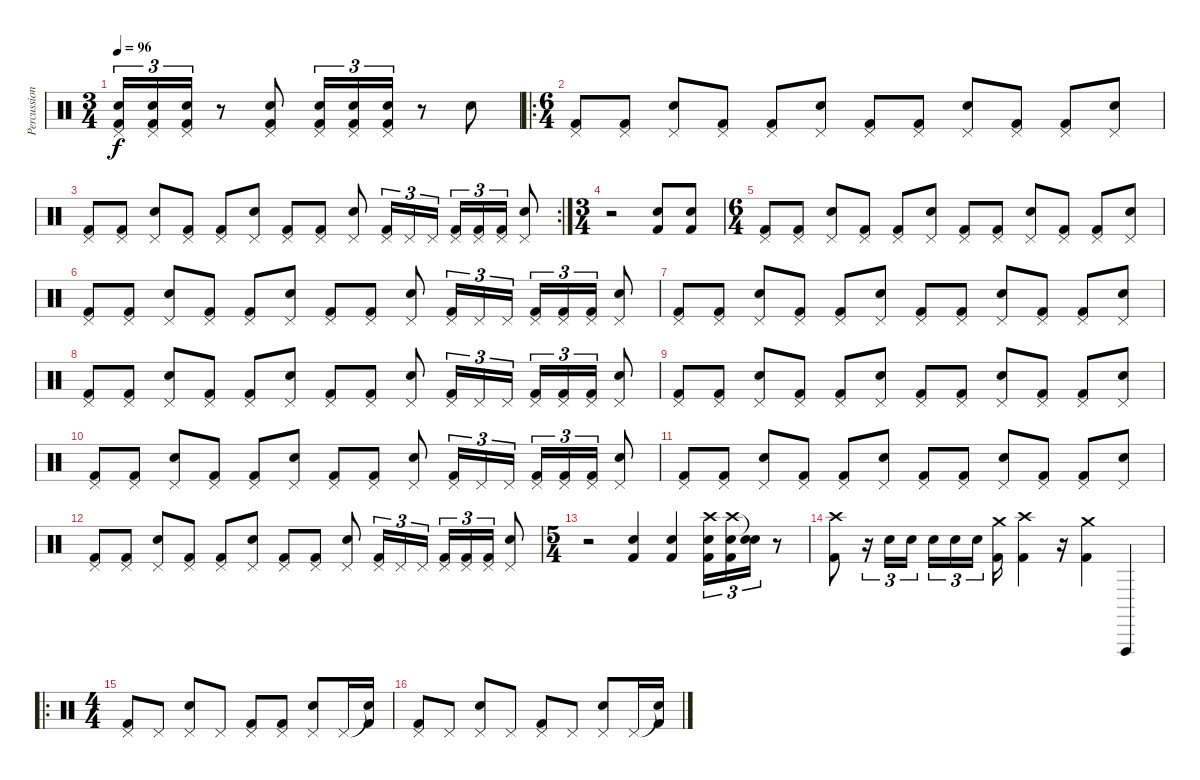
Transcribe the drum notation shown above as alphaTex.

\track ("Percussion" "Percussion") {instrument percussion}
\staff {score}
\articulation defaults
\ts (3 4)
\tempo 96
\clef neutral
\ks c
("Pedal Hi-Hat (hit)" "Snare (hit) 2" "Kick (hit) 2").16{tu (3 2) dy f} ("Pedal Hi-Hat (hit)" "Snare (hit) 2" "Kick (hit) 2").16{tu (3 2)} ("Pedal Hi-Hat (hit)" "Snare (hit) 2" "Kick (hit) 2").16{tu (3 2)} r.8 ("Pedal Hi-Hat (hit)" "Snare (hit) 2" "Kick (hit) 2").8 ("Pedal Hi-Hat (hit)" "Snare (hit) 2" "Kick (hit) 2").16{tu (3 2)} ("Pedal Hi-Hat (hit)" "Snare (hit) 2" "Kick (hit) 2").16{tu (3 2)} ("Pedal Hi-Hat (hit)" "Snare (hit) 2" "Kick (hit) 2").16{tu (3 2)} r.8 "Snare (hit) 2".8 |
\ro
\ts (6 4)
("Pedal Hi-Hat (hit)" "Kick (hit) 2").8 ("Pedal Hi-Hat (hit)" "Kick (hit) 2").8 ("Pedal Hi-Hat (hit)" "Snare (hit) 2").8 ("Pedal Hi-Hat (hit)" "Kick (hit) 2").8 ("Pedal Hi-Hat (hit)" "Kick (hit) 2").8 ("Pedal Hi-Hat (hit)" "Snare (hit) 2").8 ("Pedal Hi-Hat (hit)" "Kick (hit) 2").8 ("Pedal Hi-Hat (hit)" "Kick (hit) 2").8 ("Pedal Hi-Hat (hit)" "Snare (hit) 2").8 ("Pedal Hi-Hat (hit)" "Kick (hit) 2").8 ("Pedal Hi-Hat (hit)" "Kick (hit) 2").8 ("Pedal Hi-Hat (hit)" "Snare (hit) 2").8 |
\rc 2
("Pedal Hi-Hat (hit)" "Kick (hit) 2").8 ("Pedal Hi-Hat (hit)" "Kick (hit) 2").8 ("Pedal Hi-Hat (hit)" "Snare (hit) 2").8 ("Pedal Hi-Hat (hit)" "Kick (hit) 2").8 ("Pedal Hi-Hat (hit)" "Kick (hit) 2").8 ("Pedal Hi-Hat (hit)" "Snare (hit) 2").8 ("Pedal Hi-Hat (hit)" "Kick (hit) 2").8 ("Pedal Hi-Hat (hit)" "Kick (hit) 2").8 ("Pedal Hi-Hat (hit)" "Snare (hit) 2").8 ("Pedal Hi-Hat (hit)" "Kick (hit) 2").16{tu (3 2)} "Pedal Hi-Hat (hit)".16{tu (3 2)} "Pedal Hi-Hat (hit)".16{tu (3 2)} ("Pedal Hi-Hat (hit)" "Kick (hit) 2").16{tu (3 2)} ("Pedal Hi-Hat (hit)" "Kick (hit) 2").16{tu (3 2)} ("Pedal Hi-Hat (hit)" "Kick (hit) 2").16{tu (3 2)} ("Pedal Hi-Hat (hit)" "Snare (hit) 2").8 |
\ts (3 4)
r.2 ("Snare (hit) 2" "Kick (hit) 2").8 ("Snare (hit) 2" "Kick (hit) 2").8 |
\ts (6 4)
("Pedal Hi-Hat (hit)" "Kick (hit) 2").8 ("Pedal Hi-Hat (hit)" "Kick (hit) 2").8 ("Pedal Hi-Hat (hit)" "Snare (hit) 2").8 ("Pedal Hi-Hat (hit)" "Kick (hit) 2").8 ("Pedal Hi-Hat (hit)" "Kick (hit) 2").8 ("Pedal Hi-Hat (hit)" "Snare (hit) 2").8 ("Pedal Hi-Hat (hit)" "Kick (hit) 2").8 ("Pedal Hi-Hat (hit)" "Kick (hit) 2").8 ("Pedal Hi-Hat (hit)" "Snare (hit) 2").8 ("Pedal Hi-Hat (hit)" "Kick (hit) 2").8 ("Pedal Hi-Hat (hit)" "Kick (hit) 2").8 ("Pedal Hi-Hat (hit)" "Snare (hit) 2").8 |
("Pedal Hi-Hat (hit)" "Kick (hit) 2").8 ("Pedal Hi-Hat (hit)" "Kick (hit) 2").8 ("Pedal Hi-Hat (hit)" "Snare (hit) 2").8 ("Pedal Hi-Hat (hit)" "Kick (hit) 2").8 ("Pedal Hi-Hat (hit)" "Kick (hit) 2").8 ("Pedal Hi-Hat (hit)" "Snare (hit) 2").8 ("Pedal Hi-Hat (hit)" "Kick (hit) 2").8 ("Pedal Hi-Hat (hit)" "Kick (hit) 2").8 ("Pedal Hi-Hat (hit)" "Snare (hit) 2").8 ("Pedal Hi-Hat (hit)" "Kick (hit) 2").16{tu (3 2)} "Pedal Hi-Hat (hit)".16{tu (3 2)} "Pedal Hi-Hat (hit)".16{tu (3 2)} ("Pedal Hi-Hat (hit)" "Kick (hit) 2").16{tu (3 2)} ("Pedal Hi-Hat (hit)" "Kick (hit) 2").16{tu (3 2)} ("Pedal Hi-Hat (hit)" "Kick (hit) 2").16{tu (3 2)} ("Pedal Hi-Hat (hit)" "Snare (hit) 2").8 |
("Pedal Hi-Hat (hit)" "Kick (hit) 2").8 ("Pedal Hi-Hat (hit)" "Kick (hit) 2").8 ("Pedal Hi-Hat (hit)" "Snare (hit) 2").8 ("Pedal Hi-Hat (hit)" "Kick (hit) 2").8 ("Pedal Hi-Hat (hit)" "Kick (hit) 2").8 ("Pedal Hi-Hat (hit)" "Snare (hit) 2").8 ("Pedal Hi-Hat (hit)" "Kick (hit) 2").8 ("Pedal Hi-Hat (hit)" "Kick (hit) 2").8 ("Pedal Hi-Hat (hit)" "Snare (hit) 2").8 ("Pedal Hi-Hat (hit)" "Kick (hit) 2").8 ("Pedal Hi-Hat (hit)" "Kick (hit) 2").8 ("Pedal Hi-Hat (hit)" "Snare (hit) 2").8 |
("Pedal Hi-Hat (hit)" "Kick (hit) 2").8 ("Pedal Hi-Hat (hit)" "Kick (hit) 2").8 ("Pedal Hi-Hat (hit)" "Snare (hit) 2").8 ("Pedal Hi-Hat (hit)" "Kick (hit) 2").8 ("Pedal Hi-Hat (hit)" "Kick (hit) 2").8 ("Pedal Hi-Hat (hit)" "Snare (hit) 2").8 ("Pedal Hi-Hat (hit)" "Kick (hit) 2").8 ("Pedal Hi-Hat (hit)" "Kick (hit) 2").8 ("Pedal Hi-Hat (hit)" "Snare (hit) 2").8 ("Pedal Hi-Hat (hit)" "Kick (hit) 2").16{tu (3 2)} "Pedal Hi-Hat (hit)".16{tu (3 2)} "Pedal Hi-Hat (hit)".16{tu (3 2)} ("Pedal Hi-Hat (hit)" "Kick (hit) 2").16{tu (3 2)} ("Pedal Hi-Hat (hit)" "Kick (hit) 2").16{tu (3 2)} ("Pedal Hi-Hat (hit)" "Kick (hit) 2").16{tu (3 2)} ("Pedal Hi-Hat (hit)" "Snare (hit) 2").8 |
("Pedal Hi-Hat (hit)" "Kick (hit) 2").8 ("Pedal Hi-Hat (hit)" "Kick (hit) 2").8 ("Pedal Hi-Hat (hit)" "Snare (hit) 2").8 ("Pedal Hi-Hat (hit)" "Kick (hit) 2").8 ("Pedal Hi-Hat (hit)" "Kick (hit) 2").8 ("Pedal Hi-Hat (hit)" "Snare (hit) 2").8 ("Pedal Hi-Hat (hit)" "Kick (hit) 2").8 ("Pedal Hi-Hat (hit)" "Kick (hit) 2").8 ("Pedal Hi-Hat (hit)" "Snare (hit) 2").8 ("Pedal Hi-Hat (hit)" "Kick (hit) 2").8 ("Pedal Hi-Hat (hit)" "Kick (hit) 2").8 ("Pedal Hi-Hat (hit)" "Snare (hit) 2").8 |
("Pedal Hi-Hat (hit)" "Kick (hit) 2").8 ("Pedal Hi-Hat (hit)" "Kick (hit) 2").8 ("Pedal Hi-Hat (hit)" "Snare (hit) 2").8 ("Pedal Hi-Hat (hit)" "Kick (hit) 2").8 ("Pedal Hi-Hat (hit)" "Kick (hit) 2").8 ("Pedal Hi-Hat (hit)" "Snare (hit) 2").8 ("Pedal Hi-Hat (hit)" "Kick (hit) 2").8 ("Pedal Hi-Hat (hit)" "Kick (hit) 2").8 ("Pedal Hi-Hat (hit)" "Snare (hit) 2").8 ("Pedal Hi-Hat (hit)" "Kick (hit) 2").16{tu (3 2)} "Pedal Hi-Hat (hit)".16{tu (3 2)} "Pedal Hi-Hat (hit)".16{tu (3 2)} ("Pedal Hi-Hat (hit)" "Kick (hit) 2").16{tu (3 2)} ("Pedal Hi-Hat (hit)" "Kick (hit) 2").16{tu (3 2)} ("Pedal Hi-Hat (hit)" "Kick (hit) 2").16{tu (3 2)} ("Pedal Hi-Hat (hit)" "Snare (hit) 2").8 |
("Pedal Hi-Hat (hit)" "Kick (hit) 2").8 ("Pedal Hi-Hat (hit)" "Kick (hit) 2").8 ("Pedal Hi-Hat (hit)" "Snare (hit) 2").8 ("Pedal Hi-Hat (hit)" "Kick (hit) 2").8 ("Pedal Hi-Hat (hit)" "Kick (hit) 2").8 ("Pedal Hi-Hat (hit)" "Snare (hit) 2").8 ("Pedal Hi-Hat (hit)" "Kick (hit) 2").8 ("Pedal Hi-Hat (hit)" "Kick (hit) 2").8 ("Pedal Hi-Hat (hit)" "Snare (hit) 2").8 ("Pedal Hi-Hat (hit)" "Kick (hit) 2").8 ("Pedal Hi-Hat (hit)" "Kick (hit) 2").8 ("Pedal Hi-Hat (hit)" "Snare (hit) 2").8 |
("Pedal Hi-Hat (hit)" "Kick (hit) 2").8 ("Pedal Hi-Hat (hit)" "Kick (hit) 2").8 ("Pedal Hi-Hat (hit)" "Snare (hit) 2").8 ("Pedal Hi-Hat (hit)" "Kick (hit) 2").8 ("Pedal Hi-Hat (hit)" "Kick (hit) 2").8 ("Pedal Hi-Hat (hit)" "Snare (hit) 2").8 ("Pedal Hi-Hat (hit)" "Kick (hit) 2").8 ("Pedal Hi-Hat (hit)" "Kick (hit) 2").8 ("Pedal Hi-Hat (hit)" "Snare (hit) 2").8 ("Pedal Hi-Hat (hit)" "Kick (hit) 2").16{tu (3 2)} "Pedal Hi-Hat (hit)".16{tu (3 2)} "Pedal Hi-Hat (hit)".16{tu (3 2)} ("Pedal Hi-Hat (hit)" "Kick (hit) 2").16{tu (3 2)} ("Pedal Hi-Hat (hit)" "Kick (hit) 2").16{tu (3 2)} ("Pedal Hi-Hat (hit)" "Kick (hit) 2").16{tu (3 2)} ("Pedal Hi-Hat (hit)" "Snare (hit) 2").8 |
\ts (5 4)
r.2 ("Snare (hit) 2" "Kick (hit) 2").4 ("Snare (hit) 2" "Kick (hit) 2").4 ("Crash high (hit)" "Snare (hit) 2" "Kick (hit) 2").16{tu (3 2)} ("Crash high (hit)" "Snare (hit) 2" "Kick (hit) 2").16{tu (3 2)} ("Snare (hit)"{t} "Snare (hit)"{t}).16{tu (3 2)} r.8 |
("Crash high (hit)" "Kick (hit) 2").8 r.16{tu (3 2)} "Snare (hit) 2".16{tu (3 2)} "Snare (hit) 2".16{tu (3 2)} "Snare (hit) 2".16{tu (3 2)} "Snare (hit) 2".16{tu (3 2)} "Snare (hit) 2".16{tu (3 2)} ("Crash medium (hit)" "Kick (hit) 2").16 ("Crash high (hit)" "Kick (hit) 2").4 r.16 ("Crash medium (hit)" "Kick (hit) 2").4 "Vibraslap (hit)".4 |
\ro
\ts (4 4)
("Pedal Hi-Hat (hit)" "Kick (hit) 2").8 "Pedal Hi-Hat (hit)".8 ("Pedal Hi-Hat (hit)" "Snare (hit) 2").8 "Pedal Hi-Hat (hit)".8 ("Pedal Hi-Hat (hit)" "Kick (hit) 2").8 ("Pedal Hi-Hat (hit)" "Kick (hit) 2").8 ("Pedal Hi-Hat (hit)" "Snare (hit) 2").8 "Pedal Hi-Hat (hit)".16 ("Snare (hit)"{t} "Kick (hit) 2").16 |
("Pedal Hi-Hat (hit)" "Kick (hit) 2").8 "Pedal Hi-Hat (hit)".8 ("Pedal Hi-Hat (hit)" "Snare (hit) 2").8 "Pedal Hi-Hat (hit)".8 ("Pedal Hi-Hat (hit)" "Kick (hit) 2").8 "Pedal Hi-Hat (hit)".8 ("Pedal Hi-Hat (hit)" "Snare (hit) 2").8 "Pedal Hi-Hat (hit)".16 ("Snare (hit)"{t} "Kick (hit) 2").16
